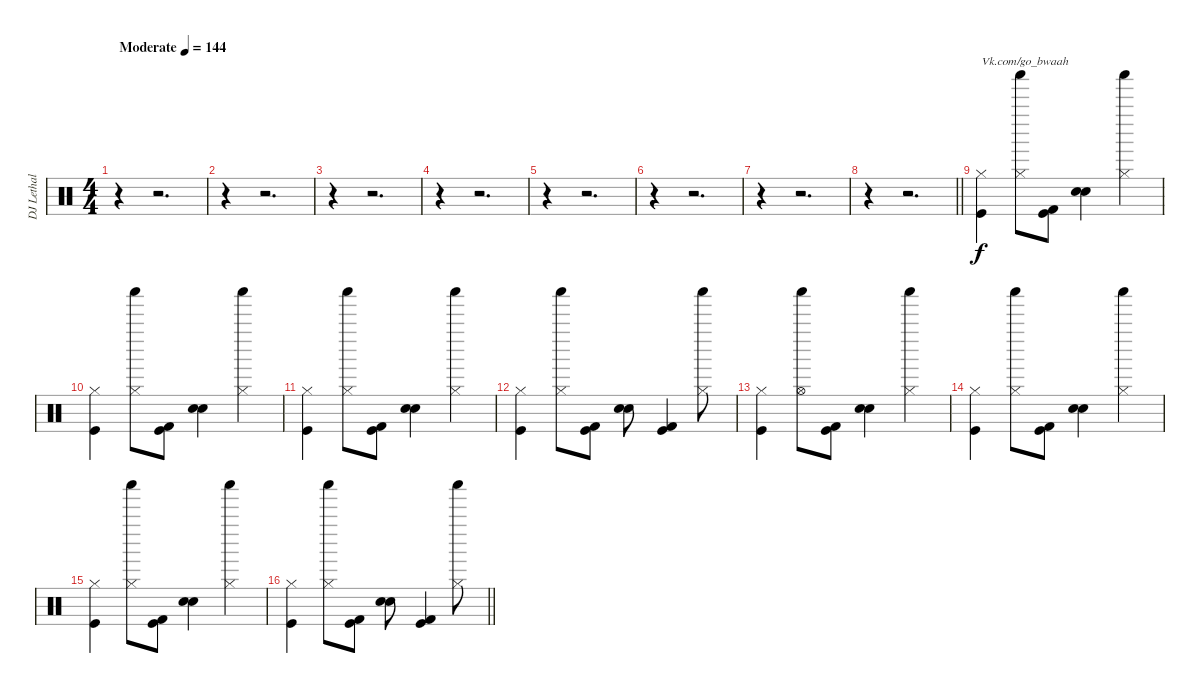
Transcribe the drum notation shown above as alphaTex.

\track ("DJ Lethal + John" "DJ Lethal ") {instrument percussion}
\staff {score}
\articulation defaults
\ts (4 4)
\tempo (144 "Moderate")
\clef neutral
\ks c
r.4{dy f} r.2{d} |
r.4 r.2{d} |
r.4 r.2{d} |
r.4 r.2{d} |
r.4 r.2{d} |
r.4 r.2{d} |
r.4 r.2{d} |
\barLineRight lightlight
r.4 r.2{d} |
("Hi-Hat (closed)" "Kick (hit)").4{txt "Vk.com/go_bwaah"} ("Hi-Hat (closed)" "Shaker (hit)").8 ("Kick (hit) 2" "Kick (hit)").8 ("Hand Clap (hit)" "Electric Snare (hit)").4 ("Hi-Hat (closed)" "Shaker (hit)").4 |
("Hi-Hat (closed)" "Kick (hit)").4 ("Hi-Hat (closed)" "Shaker (hit)").8 ("Kick (hit) 2" "Kick (hit)").8 ("Hand Clap (hit)" "Electric Snare (hit)").4 ("Hi-Hat (closed)" "Shaker (hit)").4 |
("Hi-Hat (closed)" "Kick (hit)").4 ("Hi-Hat (closed)" "Shaker (hit)").8 ("Kick (hit) 2" "Kick (hit)").8 ("Hand Clap (hit)" "Electric Snare (hit)").4 ("Hi-Hat (closed)" "Shaker (hit)").4 |
("Hi-Hat (closed)" "Kick (hit)").4 ("Hi-Hat (closed)" "Shaker (hit)").8 ("Kick (hit) 2" "Kick (hit)").8 ("Hand Clap (hit)" "Electric Snare (hit)").8 ("Kick (hit) 2" "Kick (hit)").4 ("Hi-Hat (closed)" "Shaker (hit)").8 |
("Hi-Hat (closed)" "Kick (hit)").4 ("Hi-Hat (open)" "Shaker (hit)").8 ("Kick (hit) 2" "Kick (hit)").8 ("Hand Clap (hit)" "Electric Snare (hit)").4 ("Hi-Hat (closed)" "Shaker (hit)").4 |
("Hi-Hat (closed)" "Kick (hit)").4 ("Hi-Hat (closed)" "Shaker (hit)").8 ("Kick (hit) 2" "Kick (hit)").8 ("Hand Clap (hit)" "Electric Snare (hit)").4 ("Hi-Hat (closed)" "Shaker (hit)").4 |
("Hi-Hat (closed)" "Kick (hit)").4 ("Hi-Hat (closed)" "Shaker (hit)").8 ("Kick (hit) 2" "Kick (hit)").8 ("Hand Clap (hit)" "Electric Snare (hit)").4 ("Hi-Hat (closed)" "Shaker (hit)").4 |
\barLineRight lightlight
("Hi-Hat (closed)" "Kick (hit)").4 ("Hi-Hat (closed)" "Shaker (hit)").8 ("Kick (hit) 2" "Kick (hit)").8 ("Hand Clap (hit)" "Electric Snare (hit)").8 ("Kick (hit) 2" "Kick (hit)").4 ("Hi-Hat (closed)" "Shaker (hit)").8
